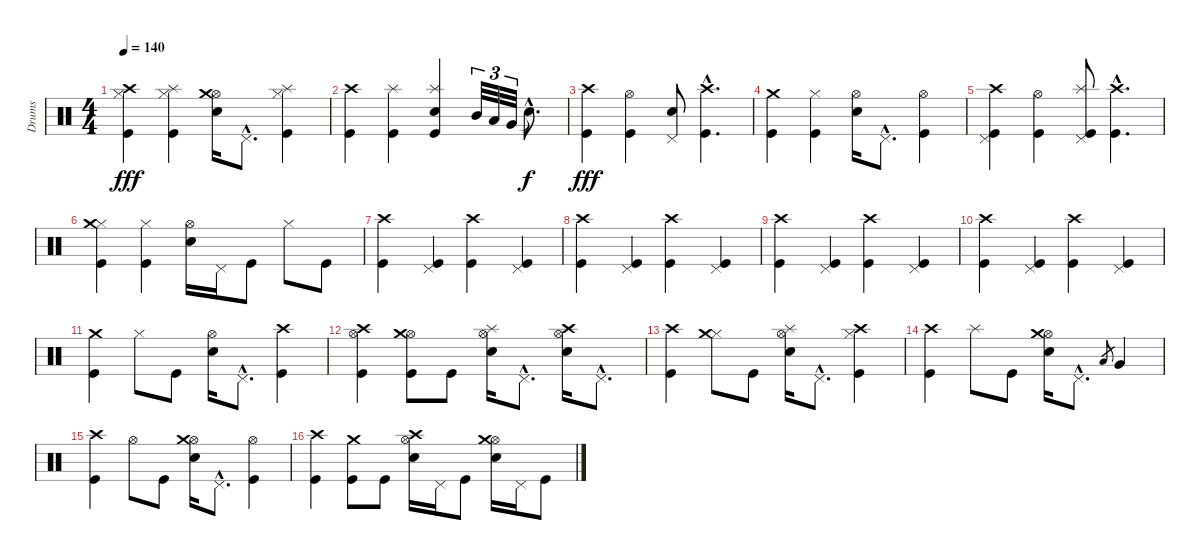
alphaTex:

\track ("Drums" "Drums") {instrument percussion}
\staff {score}
\articulation defaults
\ts (4 4)
\tempo 140
\clef neutral
\ks c
("Hi-Hat (closed)" "Crash high (hit)" "Kick (hit)").4{dy fff} ("Hi-Hat (closed)" "Splash (hit)" "Kick (hit)").4 ("Hi-Hat (open)" "Crash medium (hit)" "Electric Snare (hit)").16 "Pedal Hi-Hat (hit)"{hac}.8{d} ("Hi-Hat (closed)" "Splash (hit)" "Kick (hit)").4 |
("Crash high (hit)" "Kick (hit)").4 ("Splash (hit)" "Kick (hit)").4 ("Splash (hit)" "Electric Snare (hit)" "Kick (hit)").4 "Mid Tom (hit)".32{tu (3 2)} "Low Tom (hit)".32{tu (3 2)} "Very Low Tom (hit)".32{tu (3 2)} "Snare (hit)"{hac t}.8{d dy f} |
("Crash high (hit)" "Kick (hit)").4{dy fff} ("Hi-Hat (open)" "Kick (hit)").4 ("Pedal Hi-Hat (hit)" "Electric Snare (hit)").8 ("Crash high (hit)"{hac} "Kick (hit)"{hac}).4{d} |
("Crash medium (hit)" "Kick (hit)").4 ("Hi-Hat (closed)" "Kick (hit)").4 ("Hi-Hat (open)" "Electric Snare (hit)").16 "Pedal Hi-Hat (hit)"{hac}.8{d} ("Hi-Hat (open)" "Kick (hit)").4 |
("Pedal Hi-Hat (hit)" "Crash high (hit)" "Kick (hit)").4 ("Hi-Hat (open)" "Kick (hit)").4 ("Pedal Hi-Hat (hit)" "Splash (hit)" "Kick (hit)").8 ("Crash high (hit)"{hac} "Kick (hit)"{hac}).4{d} |
("Hi-Hat (closed)" "Crash medium (hit)" "Kick (hit)").4 ("Hi-Hat (closed)" "Kick (hit)").4 ("Hi-Hat (open)" "Electric Snare (hit)").16 "Pedal Hi-Hat (hit)".16 "Kick (hit)".8 "Hi-Hat (closed)".8 "Kick (hit)".8 |
("Crash high (hit)" "Kick (hit)").4 ("Pedal Hi-Hat (hit)" "Kick (hit)").4 ("Crash high (hit)" "Kick (hit)").4 ("Pedal Hi-Hat (hit)" "Kick (hit)").4 |
("Crash high (hit)" "Kick (hit)").4 ("Pedal Hi-Hat (hit)" "Kick (hit)").4 ("Crash high (hit)" "Kick (hit)").4 ("Pedal Hi-Hat (hit)" "Kick (hit)").4 |
("Crash high (hit)" "Kick (hit)").4 ("Pedal Hi-Hat (hit)" "Kick (hit)").4 ("Crash high (hit)" "Kick (hit)").4 ("Pedal Hi-Hat (hit)" "Kick (hit)").4 |
("Crash high (hit)" "Kick (hit)").4 ("Pedal Hi-Hat (hit)" "Kick (hit)").4 ("Crash high (hit)" "Kick (hit)").4 ("Pedal Hi-Hat (hit)" "Kick (hit)").4 |
("Crash medium (hit)" "Kick (hit)").4 "Hi-Hat (closed)".8 "Kick (hit)".8 ("Hi-Hat (open)" "Electric Snare (hit)").16 "Pedal Hi-Hat (hit)"{hac}.8{d} ("Crash high (hit)" "Kick (hit)").4 |
("Hi-Hat (open)" "Crash high (hit)" "Kick (hit)").4 ("Hi-Hat (open)" "Crash medium (hit)" "Kick (hit)").8 "Kick (hit)".8 ("Hi-Hat (open)" "Splash (hit)" "Electric Snare (hit)").16 "Pedal Hi-Hat (hit)"{hac}.8{d} ("Hi-Hat (open)" "Crash high (hit)" "Electric Snare (hit)").16 "Pedal Hi-Hat (hit)"{hac}.8{d} |
("Crash high (hit)" "Kick (hit)").4 ("Hi-Hat (closed)" "Crash medium (hit)").8 "Kick (hit)".8 ("Hi-Hat (open)" "Splash (hit)" "Electric Snare (hit)").16 "Pedal Hi-Hat (hit)"{hac}.8{d} ("Hi-Hat (closed)" "Crash high (hit)" "Kick (hit)").4 |
("Crash high (hit)" "Kick (hit)").4 "Splash (hit)".8 "Kick (hit)".8 ("Hi-Hat (open)" "Crash medium (hit)" "Electric Snare (hit)").16 "Pedal Hi-Hat (hit)"{hac}.8{d} "Low Tom (hit)".8{gr} "Very Low Tom (hit)".4 |
("Crash high (hit)" "Kick (hit)").4 "Hi-Hat (open)".8 "Kick (hit)".8 ("Hi-Hat (open)" "Crash medium (hit)" "Electric Snare (hit)").16 "Pedal Hi-Hat (hit)"{hac}.8{d} ("Hi-Hat (open)" "Kick (hit)").4 |
("Crash high (hit)" "Kick (hit)").4 ("Crash medium (hit)" "Kick (hit)").8 "Kick (hit)".8 ("Hi-Hat (open)" "Crash high (hit)" "Electric Snare (hit)").16 "Pedal Hi-Hat (hit)".16 "Kick (hit)".8 ("Hi-Hat (open)" "Crash medium (hit)" "Electric Snare (hit)").16 "Pedal Hi-Hat (hit)".16 "Kick (hit)".8
